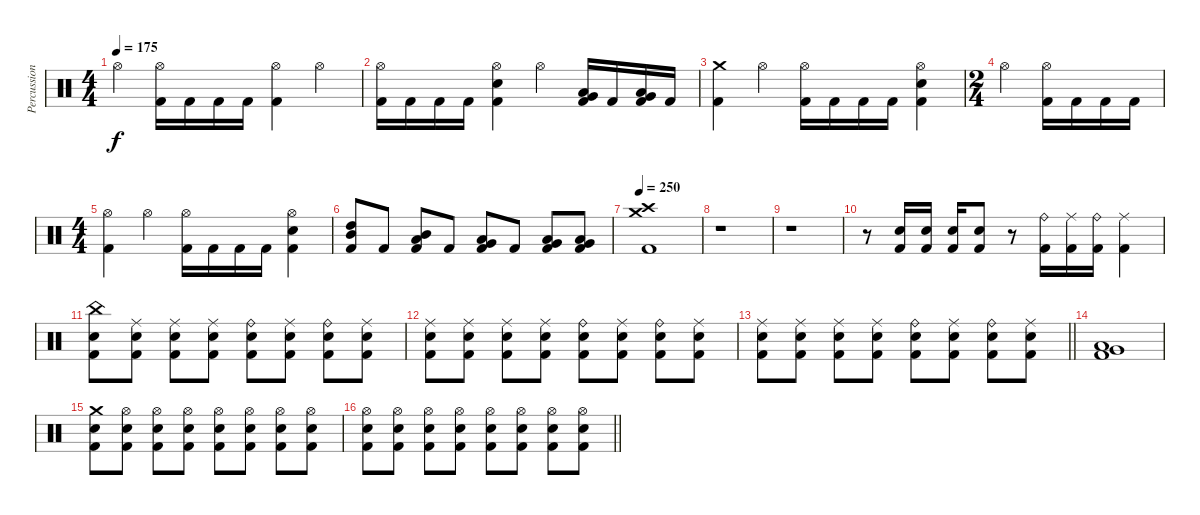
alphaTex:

\track ("Percussions" "Percussion") {instrument percussion}
\staff {score}
\articulation defaults
\ts (4 4)
\tempo 175
\clef neutral
\ks c "Hi-Hat (open)".4{dy f}
("Hi-Hat (open)" "Kick (hit) 2").16 "Kick (hit) 2".16 "Kick (hit) 2".16 "Kick (hit) 2".16 ("Hi-Hat (open)" "Kick (hit) 2").4 "Hi-Hat (open)".4 |
("Hi-Hat (open)" "Kick (hit) 2").16 "Kick (hit) 2".16 "Kick (hit) 2".16 "Kick (hit) 2".16 ("Hi-Hat (open)" "Electric Snare (hit)" "Kick (hit) 2").4 "Hi-Hat (open)".4 ("Low Tom (hit)" "Very Low Tom (hit)" "Kick (hit) 2").16 "Kick (hit) 2".16 ("Very Low Tom (hit)" "Low Floor Tom (hit)" "Kick (hit) 2").16 "Kick (hit) 2".16 |
("Crash medium (hit)" "Kick (hit) 2").4 "Hi-Hat (open)".4 ("Hi-Hat (open)" "Kick (hit) 2").16 "Kick (hit) 2".16 "Kick (hit) 2".16 "Kick (hit) 2".16 ("Hi-Hat (open)" "Electric Snare (hit)" "Kick (hit) 2").4 |
\ts (2 4)
"Hi-Hat (open)".4 ("Hi-Hat (open)" "Kick (hit) 2").16 "Kick (hit) 2".16 "Kick (hit) 2".16 "Kick (hit) 2".16 |
\ts (4 4)
("Hi-Hat (open)" "Kick (hit) 2").4 "Hi-Hat (open)".4 ("Hi-Hat (open)" "Kick (hit) 2").16 "Kick (hit) 2".16 "Kick (hit) 2".16 "Kick (hit) 2".16 ("Hi-Hat (open)" "Electric Snare (hit)" "Kick (hit) 2").4 |
("High Tom (hit)" "Mid Tom (hit)" "Kick (hit) 2").8 "Kick (hit) 2".8 ("Mid Tom (hit)" "Low Tom (hit)" "Kick (hit) 2").8 "Kick (hit) 2".8 ("Low Tom (hit)" "Very Low Tom (hit)" "Kick (hit) 2").8 "Kick (hit) 2".8 ("Very Low Tom (hit)" "Low Floor Tom (hit)" "Kick (hit) 2").8 ("Very Low Tom (hit)" "Low Floor Tom (hit)" "Kick (hit) 2").8 |
\tempo 250
("Crash medium (hit)" "Crash high (hit)" "Kick (hit) 2").1 |
r.1 |
r.1 |
r.8 ("Electric Snare (hit)" "Kick (hit) 2").16 ("Electric Snare (hit)" "Kick (hit) 2").16 ("Electric Snare (hit)" "Kick (hit) 2").16 ("Electric Snare (hit)" "Kick (hit) 2").8 r.8 ("Ride (bell)" "Kick (hit) 2").16 ("Ride (middle)" "Kick (hit) 2").16 ("Ride (bell)" "Kick (hit) 2").16 ("Ride (middle)" "Kick (hit) 2").4 |
("China (hit)" "Electric Snare (hit)" "Kick (hit) 2").8 ("Ride (middle)" "Electric Snare (hit)" "Kick (hit) 2").8 ("Ride (middle)" "Electric Snare (hit)" "Kick (hit) 2").8 ("Ride (middle)" "Electric Snare (hit)" "Kick (hit) 2").8 ("Ride (bell)" "Electric Snare (hit)" "Kick (hit) 2").8 ("Ride (middle)" "Electric Snare (hit)" "Kick (hit) 2").8 ("Ride (bell)" "Electric Snare (hit)" "Kick (hit) 2").8 ("Ride (middle)" "Electric Snare (hit)" "Kick (hit) 2").8 |
("Ride (middle)" "Electric Snare (hit)" "Kick (hit) 2").8 ("Ride (middle)" "Electric Snare (hit)" "Kick (hit) 2").8 ("Ride (middle)" "Electric Snare (hit)" "Kick (hit) 2").8 ("Ride (middle)" "Electric Snare (hit)" "Kick (hit) 2").8 ("Ride (bell)" "Electric Snare (hit)" "Kick (hit) 2").8 ("Ride (middle)" "Electric Snare (hit)" "Kick (hit) 2").8 ("Ride (bell)" "Electric Snare (hit)" "Kick (hit) 2").8 ("Ride (middle)" "Electric Snare (hit)" "Kick (hit) 2").8 |
\barLineRight lightlight
("Ride (middle)" "Electric Snare (hit)" "Kick (hit) 2").8 ("Ride (middle)" "Electric Snare (hit)" "Kick (hit) 2").8 ("Ride (middle)" "Electric Snare (hit)" "Kick (hit) 2").8 ("Ride (middle)" "Electric Snare (hit)" "Kick (hit) 2").8 ("Ride (bell)" "Electric Snare (hit)" "Kick (hit) 2").8 ("Ride (middle)" "Electric Snare (hit)" "Kick (hit) 2").8 ("Ride (bell)" "Electric Snare (hit)" "Kick (hit) 2").8 ("Ride (middle)" "Electric Snare (hit)" "Kick (hit) 2").8 |
("Very Low Tom (hit)" "Low Floor Tom (hit)" "Kick (hit) 2").1 |
("Crash medium (hit)" "Electric Snare (hit)" "Kick (hit) 2").8 ("Hi-Hat (open)" "Electric Snare (hit)" "Kick (hit) 2").8 ("Hi-Hat (open)" "Electric Snare (hit)" "Kick (hit) 2").8 ("Hi-Hat (open)" "Electric Snare (hit)" "Kick (hit) 2").8 ("Hi-Hat (open)" "Electric Snare (hit)" "Kick (hit) 2").8 ("Hi-Hat (open)" "Electric Snare (hit)" "Kick (hit) 2").8 ("Hi-Hat (open)" "Electric Snare (hit)" "Kick (hit) 2").8 ("Hi-Hat (open)" "Electric Snare (hit)" "Kick (hit) 2").8 |
\barLineRight lightlight
("Hi-Hat (open)" "Electric Snare (hit)" "Kick (hit) 2").8 ("Hi-Hat (open)" "Electric Snare (hit)" "Kick (hit) 2").8 ("Hi-Hat (open)" "Electric Snare (hit)" "Kick (hit) 2").8 ("Hi-Hat (open)" "Electric Snare (hit)" "Kick (hit) 2").8 ("Hi-Hat (open)" "Electric Snare (hit)" "Kick (hit) 2").8 ("Hi-Hat (open)" "Electric Snare (hit)" "Kick (hit) 2").8 ("Hi-Hat (open)" "Electric Snare (hit)" "Kick (hit) 2").8 ("Hi-Hat (open)" "Electric Snare (hit)" "Kick (hit) 2").8
